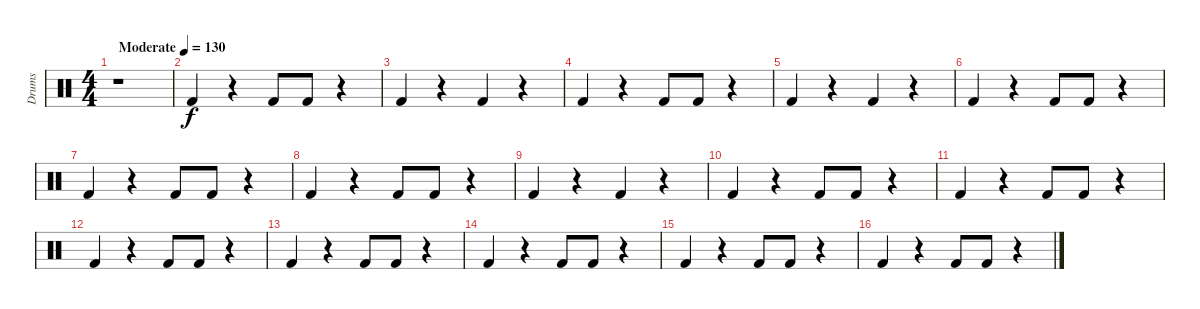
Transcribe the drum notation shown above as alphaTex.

\track ("Drums" "Drums") {instrument percussion}
\staff {score}
\articulation defaults
\ts (4 4)
\tempo (130 "Moderate")
\clef neutral
\ks c
r.1{dy f} |
"Kick (hit) 2".4 r.4 "Kick (hit) 2".8 "Kick (hit) 2".8 r.4 |
"Kick (hit) 2".4 r.4 "Kick (hit) 2".4 r.4 |
"Kick (hit) 2".4 r.4 "Kick (hit) 2".8 "Kick (hit) 2".8 r.4 |
"Kick (hit) 2".4 r.4 "Kick (hit) 2".4 r.4 |
"Kick (hit) 2".4 r.4 "Kick (hit) 2".8 "Kick (hit) 2".8 r.4 |
"Kick (hit) 2".4 r.4 "Kick (hit) 2".8 "Kick (hit) 2".8 r.4 |
"Kick (hit) 2".4 r.4 "Kick (hit) 2".8 "Kick (hit) 2".8 r.4 |
"Kick (hit) 2".4 r.4 "Kick (hit) 2".4 r.4 |
"Kick (hit) 2".4 r.4 "Kick (hit) 2".8 "Kick (hit) 2".8 r.4 |
"Kick (hit) 2".4 r.4 "Kick (hit) 2".8 "Kick (hit) 2".8 r.4 |
"Kick (hit) 2".4 r.4 "Kick (hit) 2".8 "Kick (hit) 2".8 r.4 |
"Kick (hit) 2".4 r.4 "Kick (hit) 2".8 "Kick (hit) 2".8 r.4 |
"Kick (hit) 2".4 r.4 "Kick (hit) 2".8 "Kick (hit) 2".8 r.4 |
"Kick (hit) 2".4 r.4 "Kick (hit) 2".8 "Kick (hit) 2".8 r.4 |
"Kick (hit) 2".4 r.4 "Kick (hit) 2".8 "Kick (hit) 2".8 r.4
